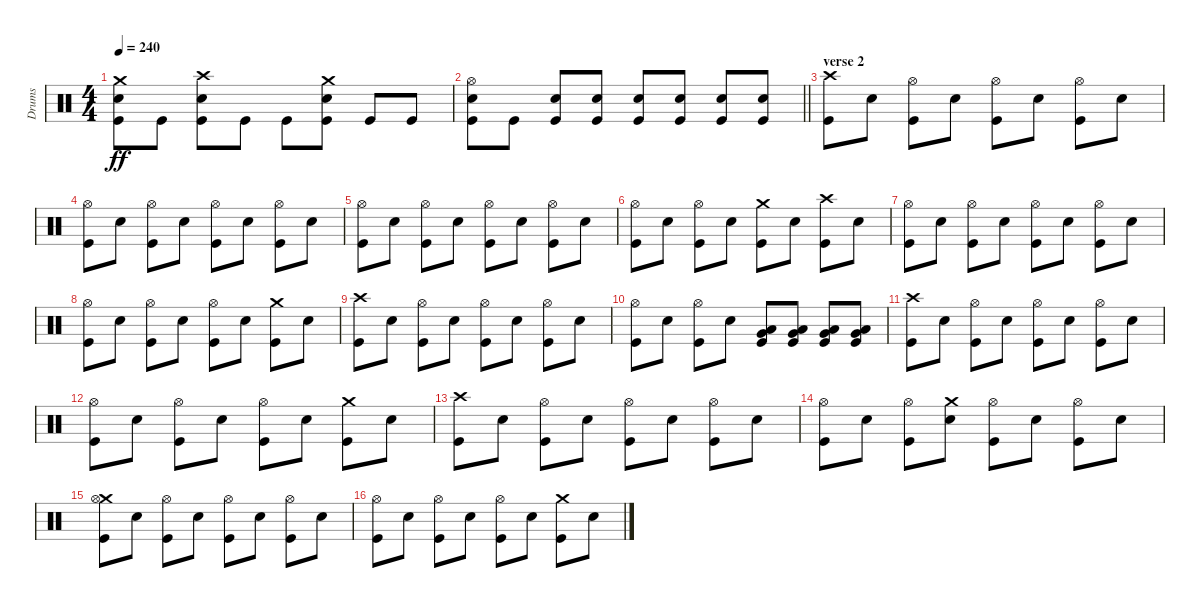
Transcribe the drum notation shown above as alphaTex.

\track ("Drums" "Drums") {instrument percussion}
\staff {score}
\articulation defaults
\ts (4 4)
\tempo 240
\clef neutral
\ks c
("Crash medium (hit)" "Electric Snare (hit)" "Kick (hit)").8{dy ff} "Kick (hit)".8 ("Crash high (hit)" "Electric Snare (hit)" "Kick (hit)").8 "Kick (hit)".8 "Kick (hit)".8 ("Crash medium (hit)" "Electric Snare (hit)" "Kick (hit)").8 "Kick (hit)".8 "Kick (hit)".8 |
\barLineRight lightlight
("Hi-Hat (open)" "Electric Snare (hit)" "Kick (hit)").8 "Kick (hit)".8 ("Electric Snare (hit)" "Kick (hit)").8 ("Electric Snare (hit)" "Kick (hit)").8 ("Electric Snare (hit)" "Kick (hit)").8 ("Electric Snare (hit)" "Kick (hit)").8 ("Electric Snare (hit)" "Kick (hit)").8 ("Electric Snare (hit)" "Kick (hit)").8 |
\section ("" "verse 2")
("Crash high (hit)" "Kick (hit)").8 "Electric Snare (hit)".8 ("Hi-Hat (open)" "Kick (hit)").8 "Electric Snare (hit)".8 ("Hi-Hat (open)" "Kick (hit)").8 "Electric Snare (hit)".8 ("Hi-Hat (open)" "Kick (hit)").8 "Electric Snare (hit)".8 |
("Hi-Hat (open)" "Kick (hit)").8 "Electric Snare (hit)".8 ("Hi-Hat (open)" "Kick (hit)").8 "Electric Snare (hit)".8 ("Hi-Hat (open)" "Kick (hit)").8 "Electric Snare (hit)".8 ("Hi-Hat (open)" "Kick (hit)").8 "Electric Snare (hit)".8 |
("Hi-Hat (open)" "Kick (hit)").8 "Electric Snare (hit)".8 ("Hi-Hat (open)" "Kick (hit)").8 "Electric Snare (hit)".8 ("Hi-Hat (open)" "Kick (hit)").8 "Electric Snare (hit)".8 ("Hi-Hat (open)" "Kick (hit)").8 "Electric Snare (hit)".8 |
("Hi-Hat (open)" "Kick (hit)").8 "Electric Snare (hit)".8 ("Hi-Hat (open)" "Kick (hit)").8 "Electric Snare (hit)".8 ("Crash medium (hit)" "Kick (hit)").8 "Electric Snare (hit)".8 ("Crash high (hit)" "Kick (hit)").8 "Electric Snare (hit)".8 |
("Hi-Hat (open)" "Kick (hit)").8 "Electric Snare (hit)".8 ("Hi-Hat (open)" "Kick (hit)").8 "Electric Snare (hit)".8 ("Hi-Hat (open)" "Kick (hit)").8 "Electric Snare (hit)".8 ("Hi-Hat (open)" "Kick (hit)").8 "Electric Snare (hit)".8 |
("Hi-Hat (open)" "Kick (hit)").8 "Electric Snare (hit)".8 ("Hi-Hat (open)" "Kick (hit)").8 "Electric Snare (hit)".8 ("Hi-Hat (open)" "Kick (hit)").8 "Electric Snare (hit)".8 ("Crash medium (hit)" "Kick (hit)").8 "Electric Snare (hit)".8 |
("Crash high (hit)" "Kick (hit)").8 "Electric Snare (hit)".8 ("Hi-Hat (open)" "Kick (hit)").8 "Electric Snare (hit)".8 ("Hi-Hat (open)" "Kick (hit)").8 "Electric Snare (hit)".8 ("Hi-Hat (open)" "Kick (hit)").8 "Electric Snare (hit)".8 |
("Hi-Hat (open)" "Kick (hit)").8 "Electric Snare (hit)".8 ("Hi-Hat (open)" "Kick (hit)").8 "Electric Snare (hit)".8 ("Very Low Tom (hit)" "Low Floor Tom (hit)" "Kick (hit)").8 ("Very Low Tom (hit)" "Low Floor Tom (hit)" "Kick (hit)").8 ("Very Low Tom (hit)" "Low Floor Tom (hit)" "Kick (hit)").8 ("Very Low Tom (hit)" "Low Floor Tom (hit)" "Kick (hit)").8 |
("Crash high (hit)" "Kick (hit)").8 "Electric Snare (hit)".8 ("Hi-Hat (open)" "Kick (hit)").8 "Electric Snare (hit)".8 ("Hi-Hat (open)" "Kick (hit)").8 "Electric Snare (hit)".8 ("Hi-Hat (open)" "Kick (hit)").8 "Electric Snare (hit)".8 |
("Hi-Hat (open)" "Kick (hit)").8 "Electric Snare (hit)".8 ("Hi-Hat (open)" "Kick (hit)").8 "Electric Snare (hit)".8 ("Hi-Hat (open)" "Kick (hit)").8 "Electric Snare (hit)".8 ("Crash medium (hit)" "Kick (hit)").8 "Electric Snare (hit)".8 |
("Crash high (hit)" "Kick (hit)").8 "Electric Snare (hit)".8 ("Hi-Hat (open)" "Kick (hit)").8 "Electric Snare (hit)".8 ("Hi-Hat (open)" "Kick (hit)").8 "Electric Snare (hit)".8 ("Hi-Hat (open)" "Kick (hit)").8 "Electric Snare (hit)".8 |
("Hi-Hat (open)" "Kick (hit)").8 "Electric Snare (hit)".8 ("Hi-Hat (open)" "Kick (hit)").8 ("Crash medium (hit)" "Electric Snare (hit)").8 ("Hi-Hat (open)" "Kick (hit)").8 "Electric Snare (hit)".8 ("Hi-Hat (open)" "Kick (hit)").8 "Electric Snare (hit)".8 |
("Crash medium (hit)" "Hi-Hat (open)" "Kick (hit)").8 "Electric Snare (hit)".8 ("Hi-Hat (open)" "Kick (hit)").8 "Electric Snare (hit)".8 ("Hi-Hat (open)" "Kick (hit)").8 "Electric Snare (hit)".8 ("Hi-Hat (open)" "Kick (hit)").8 "Electric Snare (hit)".8 |
("Hi-Hat (open)" "Kick (hit)").8 "Electric Snare (hit)".8 ("Hi-Hat (open)" "Kick (hit)").8 "Electric Snare (hit)".8 ("Hi-Hat (open)" "Kick (hit)").8 "Electric Snare (hit)".8 ("Crash medium (hit)" "Kick (hit)").8 "Electric Snare (hit)".8
